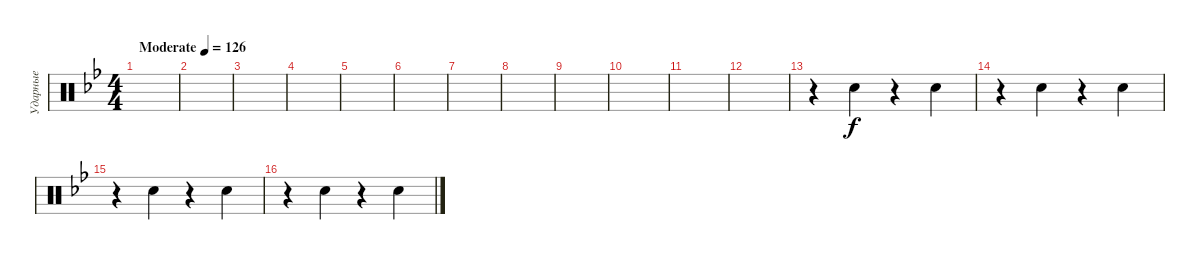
\track ("Ударные" "Ударные") {instrument percussion}
\staff {score}
\articulation defaults
\ts (4 4)
\tempo (126 "Moderate")
\clef neutral
\ks bb
|
|
|
|
|
|
|
|
|
|
|
|
r.4 "Hand Clap (hit)".4 r.4 "Hand Clap (hit)".4 |
r.4 "Hand Clap (hit)".4 r.4 "Hand Clap (hit)".4 |
r.4 "Hand Clap (hit)".4 r.4 "Hand Clap (hit)".4 |
r.4 "Hand Clap (hit)".4 r.4 "Hand Clap (hit)".4
